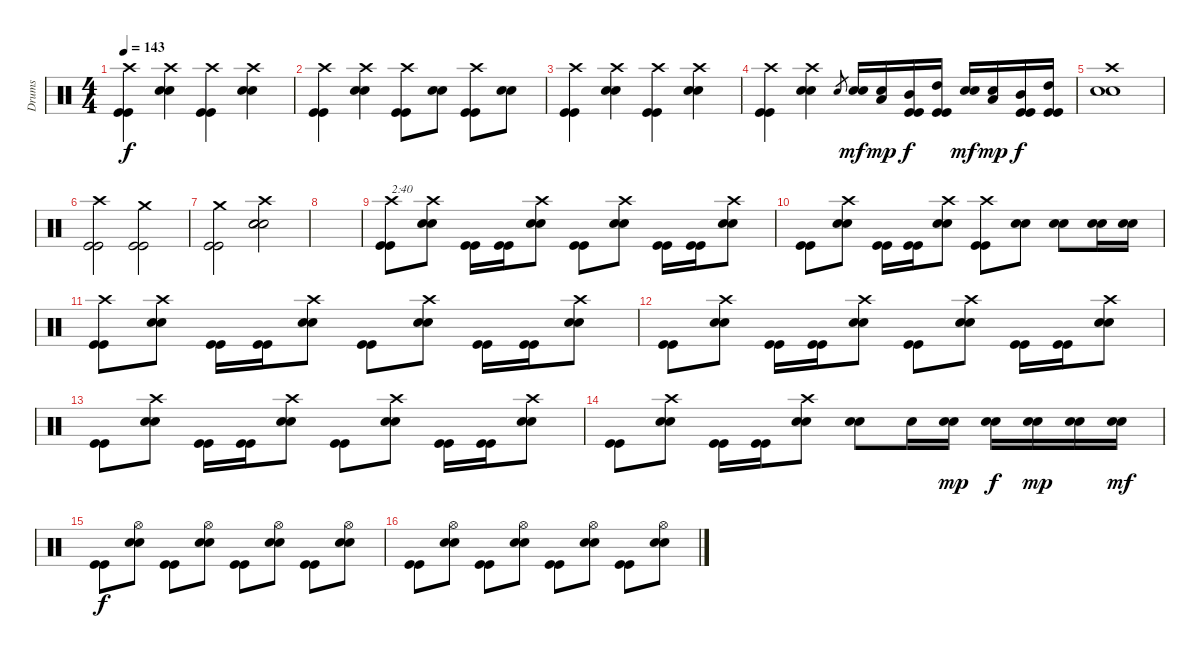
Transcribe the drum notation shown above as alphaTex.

\track ("Drums" "Drums") {instrument percussion}
\staff {score}
\articulation defaults
\ts (4 4)
\tempo 143
\clef neutral
\ks c
("Crash high (hit)" "Kick (hit)" "Kick (hit)").4{dy f} ("Crash high (hit)" "Electric Snare (hit)" "Electric Snare (hit)").4 ("Crash high (hit)" "Kick (hit)" "Kick (hit)").4 ("Crash high (hit)" "Electric Snare (hit)" "Electric Snare (hit)").4 |
("Crash high (hit)" "Kick (hit)" "Kick (hit)").4 ("Crash high (hit)" "Electric Snare (hit)" "Electric Snare (hit)").4 ("Crash high (hit)" "Kick (hit)" "Kick (hit)").8 ("Electric Snare (hit)" "Electric Snare (hit)").8 ("Crash high (hit)" "Kick (hit)" "Kick (hit)").8 ("Electric Snare (hit)" "Electric Snare (hit)").8 |
("Crash high (hit)" "Kick (hit)" "Kick (hit)").4 ("Crash high (hit)" "Electric Snare (hit)" "Electric Snare (hit)").4 ("Crash high (hit)" "Kick (hit)" "Kick (hit)").4 ("Crash high (hit)" "Electric Snare (hit)" "Electric Snare (hit)").4 |
("Crash high (hit)" "Kick (hit)" "Kick (hit)").4 ("Crash high (hit)" "Electric Snare (hit)" "Electric Snare (hit)").4 "Electric Snare (hit)".8{gr} ("Electric Snare (hit)" "Electric Snare (hit)").16{dy mf} ("Electric Snare (hit)" "Low Tom (hit)").16{dy mp} ("Mid Tom (hit)" "Kick (hit)" "Kick (hit)").16{dy f} ("High Tom (hit)" "Kick (hit)" "Kick (hit)").16 ("Electric Snare (hit)" "Electric Snare (hit)").16{dy mf} ("Electric Snare (hit)" "Low Tom (hit)").16{dy mp} ("Mid Tom (hit)" "Kick (hit)" "Kick (hit)").16{dy f} ("High Tom (hit)" "Kick (hit)" "Kick (hit)").16 |
("Crash high (hit)" "Electric Snare (hit)" "Electric Snare (hit)").1 |
("Crash high (hit)" "Kick (hit)" "Kick (hit)").2 ("Crash medium (hit)" "Kick (hit)" "Kick (hit)").2 |
("Crash medium (hit)" "Kick (hit)" "Kick (hit)").2 ("Crash high (hit)" "Electric Snare (hit)" "Electric Snare (hit)" "Electric Snare (hit)").2 |
|
("Crash high (hit)" "Kick (hit)" "Kick (hit)").8{txt "2:40"} ("Crash high (hit)" "Electric Snare (hit)" "Electric Snare (hit)").8 ("Kick (hit)" "Kick (hit)").16 ("Kick (hit)" "Kick (hit)").16 ("Crash high (hit)" "Electric Snare (hit)" "Electric Snare (hit)").8 ("Kick (hit)" "Kick (hit)").8 ("Crash high (hit)" "Electric Snare (hit)" "Electric Snare (hit)").8 ("Kick (hit)" "Kick (hit)").16 ("Kick (hit)" "Kick (hit)").16 ("Crash high (hit)" "Electric Snare (hit)" "Electric Snare (hit)").8 |
("Kick (hit)" "Kick (hit)").8 ("Crash high (hit)" "Electric Snare (hit)" "Electric Snare (hit)").8 ("Kick (hit)" "Kick (hit)").16 ("Kick (hit)" "Kick (hit)").16 ("Crash high (hit)" "Electric Snare (hit)" "Electric Snare (hit)").8 ("Crash high (hit)" "Kick (hit)" "Kick (hit)").8 ("Electric Snare (hit)" "Electric Snare (hit)").8 ("Electric Snare (hit)" "Electric Snare (hit)").8 ("Electric Snare (hit)" "Electric Snare (hit)").16 ("Electric Snare (hit)" "Electric Snare (hit)").16 |
("Crash high (hit)" "Kick (hit)" "Kick (hit)").8 ("Crash high (hit)" "Electric Snare (hit)" "Electric Snare (hit)").8 ("Kick (hit)" "Kick (hit)").16 ("Kick (hit)" "Kick (hit)").16 ("Crash high (hit)" "Electric Snare (hit)" "Electric Snare (hit)").8 ("Kick (hit)" "Kick (hit)").8 ("Crash high (hit)" "Electric Snare (hit)" "Electric Snare (hit)").8 ("Kick (hit)" "Kick (hit)").16 ("Kick (hit)" "Kick (hit)").16 ("Crash high (hit)" "Electric Snare (hit)" "Electric Snare (hit)").8 |
("Kick (hit)" "Kick (hit)").8 ("Crash high (hit)" "Electric Snare (hit)" "Electric Snare (hit)").8 ("Kick (hit)" "Kick (hit)").16 ("Kick (hit)" "Kick (hit)").16 ("Crash high (hit)" "Electric Snare (hit)" "Electric Snare (hit)").8 ("Kick (hit)" "Kick (hit)").8 ("Crash high (hit)" "Electric Snare (hit)" "Electric Snare (hit)").8 ("Kick (hit)" "Kick (hit)").16 ("Kick (hit)" "Kick (hit)").16 ("Crash high (hit)" "Electric Snare (hit)" "Electric Snare (hit)").8 |
("Kick (hit)" "Kick (hit)").8 ("Crash high (hit)" "Electric Snare (hit)" "Electric Snare (hit)").8 ("Kick (hit)" "Kick (hit)").16 ("Kick (hit)" "Kick (hit)").16 ("Crash high (hit)" "Electric Snare (hit)" "Electric Snare (hit)").8 ("Kick (hit)" "Kick (hit)").8 ("Crash high (hit)" "Electric Snare (hit)" "Electric Snare (hit)").8 ("Kick (hit)" "Kick (hit)").16 ("Kick (hit)" "Kick (hit)").16 ("Crash high (hit)" "Electric Snare (hit)" "Electric Snare (hit)").8 |
("Kick (hit)" "Kick (hit)").8 ("Crash high (hit)" "Electric Snare (hit)" "Electric Snare (hit)").8 ("Kick (hit)" "Kick (hit)").16 ("Kick (hit)" "Kick (hit)").16 ("Crash high (hit)" "Electric Snare (hit)" "Electric Snare (hit)").8 ("Electric Snare (hit)" "Electric Snare (hit)").8 "Electric Snare (hit)".16 ("Electric Snare (hit)" "Electric Snare (hit)").16{dy mp} ("Electric Snare (hit)" "Electric Snare (hit)").16{dy f} ("Electric Snare (hit)" "Electric Snare (hit)").16{dy mp} ("Electric Snare (hit)" "Electric Snare (hit)").16 ("Electric Snare (hit)" "Electric Snare (hit)").16{dy mf} |
("Kick (hit)" "Kick (hit)").8{dy f} ("Hi-Hat (open)" "Electric Snare (hit)" "Electric Snare (hit)").8 ("Kick (hit)" "Kick (hit)").8 ("Hi-Hat (open)" "Electric Snare (hit)" "Electric Snare (hit)").8 ("Kick (hit)" "Kick (hit)").8 ("Hi-Hat (open)" "Electric Snare (hit)" "Electric Snare (hit)").8 ("Kick (hit)" "Kick (hit)").8 ("Hi-Hat (open)" "Electric Snare (hit)" "Electric Snare (hit)").8 |
("Kick (hit)" "Kick (hit)").8 ("Hi-Hat (open)" "Electric Snare (hit)" "Electric Snare (hit)").8 ("Kick (hit)" "Kick (hit)").8 ("Hi-Hat (open)" "Electric Snare (hit)" "Electric Snare (hit)").8 ("Kick (hit)" "Kick (hit)").8 ("Hi-Hat (open)" "Electric Snare (hit)" "Electric Snare (hit)").8 ("Kick (hit)" "Kick (hit)").8 ("Hi-Hat (open)" "Electric Snare (hit)" "Electric Snare (hit)").8
